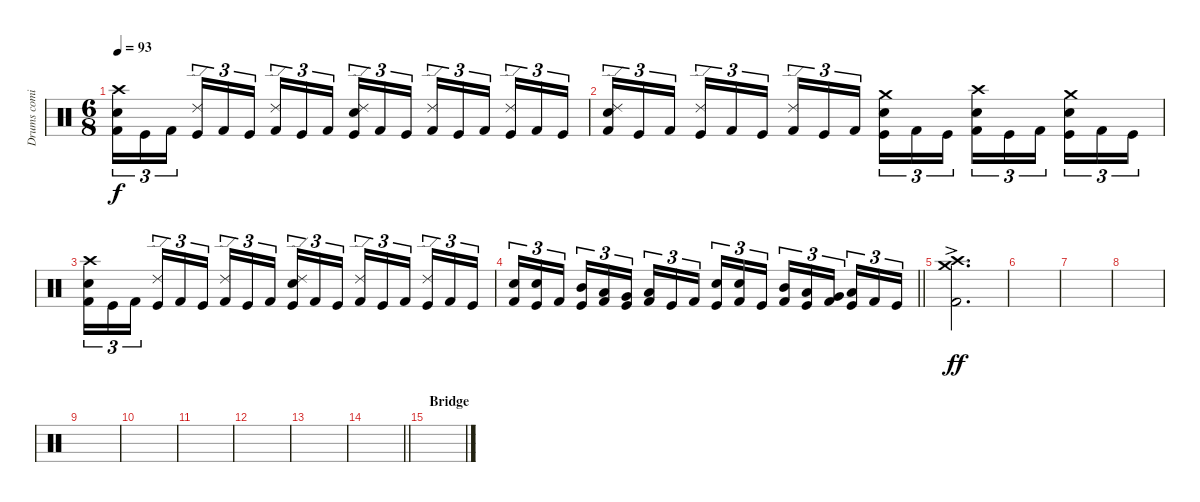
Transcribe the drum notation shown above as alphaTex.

\track ("Drums coming soon" "Drums comi") {instrument percussion}
\staff {score}
\articulation defaults
\ts (6 8)
\tempo 93
\clef neutral
\ks c
("Crash high (hit)" "Snare (hit) 2" "Kick (hit) 2").16{tu (3 2) dy f} "Kick (hit)".16{tu (3 2)} "Kick (hit) 2".16{tu (3 2) beam splitsecondary} ("Ride (edge) 2" "Kick (hit)").16{tu (3 2)} "Kick (hit) 2".16{tu (3 2)} "Kick (hit)".16{tu (3 2) beam splitsecondary} ("Ride (edge) 2" "Kick (hit) 2").16{tu (3 2)} "Kick (hit)".16{tu (3 2)} "Kick (hit) 2".16{tu (3 2)} ("Ride (edge) 2" "Snare (hit) 2" "Kick (hit)").16{tu (3 2)} "Kick (hit) 2".16{tu (3 2)} "Kick (hit)".16{tu (3 2) beam splitsecondary} ("Ride (edge) 2" "Kick (hit) 2").16{tu (3 2)} "Kick (hit)".16{tu (3 2)} "Kick (hit) 2".16{tu (3 2) beam splitsecondary} ("Ride (edge) 2" "Kick (hit)").16{tu (3 2)} "Kick (hit) 2".16{tu (3 2)} "Kick (hit)".16{tu (3 2)} |
("Ride (edge) 2" "Snare (hit) 2" "Kick (hit) 2").16{tu (3 2)} "Kick (hit)".16{tu (3 2)} "Kick (hit) 2".16{tu (3 2) beam splitsecondary} ("Ride (edge) 2" "Kick (hit)").16{tu (3 2)} "Kick (hit) 2".16{tu (3 2)} "Kick (hit)".16{tu (3 2) beam splitsecondary} ("Ride (edge) 2" "Kick (hit) 2").16{tu (3 2)} "Kick (hit)".16{tu (3 2)} "Kick (hit) 2".16{tu (3 2)} ("Crash medium (hit)" "Snare (hit) 2" "Kick (hit)").16{tu (3 2)} "Kick (hit) 2".16{tu (3 2)} "Kick (hit)".16{tu (3 2) beam splitsecondary} ("Crash high (hit)" "Snare (hit) 2" "Kick (hit) 2").16{tu (3 2)} "Kick (hit)".16{tu (3 2)} "Kick (hit) 2".16{tu (3 2) beam splitsecondary} ("Crash medium (hit)" "Snare (hit) 2" "Kick (hit)").16{tu (3 2)} "Kick (hit) 2".16{tu (3 2)} "Kick (hit)".16{tu (3 2)} |
("Crash high (hit)" "Snare (hit) 2" "Kick (hit) 2").16{tu (3 2)} "Kick (hit)".16{tu (3 2)} "Kick (hit) 2".16{tu (3 2) beam splitsecondary} ("Ride (edge) 2" "Kick (hit)").16{tu (3 2)} "Kick (hit) 2".16{tu (3 2)} "Kick (hit)".16{tu (3 2) beam splitsecondary} ("Ride (edge) 2" "Kick (hit) 2").16{tu (3 2)} "Kick (hit)".16{tu (3 2)} "Kick (hit) 2".16{tu (3 2)} ("Ride (edge) 2" "Snare (hit) 2" "Kick (hit)").16{tu (3 2)} "Kick (hit) 2".16{tu (3 2)} "Kick (hit)".16{tu (3 2) beam splitsecondary} ("Ride (edge) 2" "Kick (hit) 2").16{tu (3 2)} "Kick (hit)".16{tu (3 2)} "Kick (hit) 2".16{tu (3 2) beam splitsecondary} ("Ride (edge) 2" "Kick (hit)").16{tu (3 2)} "Kick (hit) 2".16{tu (3 2)} "Kick (hit)".16{tu (3 2)} |
\barLineRight lightlight
("Snare (hit) 2" "Kick (hit) 2").16{tu (3 2)} ("Snare (hit) 2" "Kick (hit)").16{tu (3 2)} "Kick (hit) 2".16{tu (3 2) beam splitsecondary} ("Mid Tom (hit)" "Kick (hit)").16{tu (3 2)} ("Low Tom (hit)" "Kick (hit) 2").16{tu (3 2)} ("Very Low Tom (hit)" "Kick (hit)").16{tu (3 2) beam splitsecondary} ("Low Floor Tom (hit)" "Kick (hit) 2").16{tu (3 2)} "Kick (hit)".16{tu (3 2)} "Kick (hit) 2".16{tu (3 2)} ("Snare (hit) 2" "Kick (hit)").16{tu (3 2)} ("Snare (hit) 2" "Kick (hit) 2").16{tu (3 2)} "Kick (hit)".16{tu (3 2) beam splitsecondary} ("Mid Tom (hit)" "Kick (hit) 2").16{tu (3 2)} ("Low Tom (hit)" "Kick (hit)").16{tu (3 2)} ("Very Low Tom (hit)" "Kick (hit) 2").16{tu (3 2) beam splitsecondary} ("Low Floor Tom (hit)" "Kick (hit)").16{tu (3 2)} "Kick (hit) 2".16{tu (3 2)} "Kick (hit)".16{tu (3 2)} |
\section ("" "")
("Crash medium (hit)"{ac} "Crash high (hit)"{ac} "Kick (hit) 2"{ac}).2{d dy ff} |
|
|
|
|
|
|
|
|
\barLineRight lightlight
|
\section ("" "Bridge")
